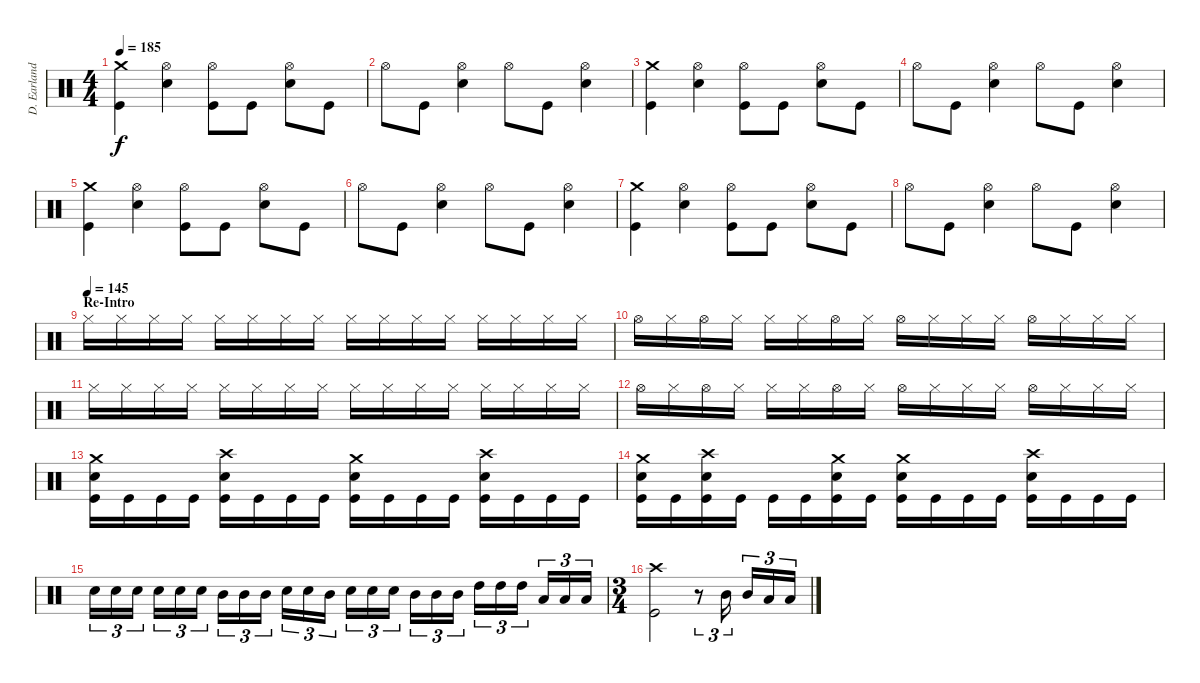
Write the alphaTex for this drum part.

\track ("D. Earlanddson" "D. Earland") {instrument percussion}
\staff {score}
\articulation defaults
\ts (4 4)
\tempo 185
\clef neutral
\ks c
("Crash medium (hit)" "Kick (hit)").4{dy f} ("Hi-Hat (open)" "Electric Snare (hit)").4 ("Hi-Hat (open)" "Kick (hit)").8 "Kick (hit)".8 ("Hi-Hat (open)" "Electric Snare (hit)").8 "Kick (hit)".8 |
"Hi-Hat (open)".8 "Kick (hit)".8 ("Hi-Hat (open)" "Electric Snare (hit)").4 "Hi-Hat (open)".8 "Kick (hit)".8 ("Hi-Hat (open)" "Electric Snare (hit)").4 |
("Crash medium (hit)" "Kick (hit)").4 ("Hi-Hat (open)" "Electric Snare (hit)").4 ("Hi-Hat (open)" "Kick (hit)").8 "Kick (hit)".8 ("Hi-Hat (open)" "Electric Snare (hit)").8 "Kick (hit)".8 |
"Hi-Hat (open)".8 "Kick (hit)".8 ("Hi-Hat (open)" "Electric Snare (hit)").4 "Hi-Hat (open)".8 "Kick (hit)".8 ("Hi-Hat (open)" "Electric Snare (hit)").4 |
("Crash medium (hit)" "Kick (hit)").4 ("Hi-Hat (open)" "Electric Snare (hit)").4 ("Hi-Hat (open)" "Kick (hit)").8 "Kick (hit)".8 ("Hi-Hat (open)" "Electric Snare (hit)").8 "Kick (hit)".8 |
"Hi-Hat (open)".8 "Kick (hit)".8 ("Hi-Hat (open)" "Electric Snare (hit)").4 "Hi-Hat (open)".8 "Kick (hit)".8 ("Hi-Hat (open)" "Electric Snare (hit)").4 |
("Crash medium (hit)" "Kick (hit)").4 ("Hi-Hat (open)" "Electric Snare (hit)").4 ("Hi-Hat (open)" "Kick (hit)").8 "Kick (hit)".8 ("Hi-Hat (open)" "Electric Snare (hit)").8 "Kick (hit)".8 |
"Hi-Hat (open)".8 "Kick (hit)".8 ("Hi-Hat (open)" "Electric Snare (hit)").4 "Hi-Hat (open)".8 "Kick (hit)".8 ("Hi-Hat (open)" "Electric Snare (hit)").4 |
\section ("" "Re-Intro")
\tempo (145)
"Hi-Hat (closed)".16 "Hi-Hat (closed)".16 "Hi-Hat (closed)".16 "Hi-Hat (closed)".16 "Hi-Hat (closed)".16 "Hi-Hat (closed)".16 "Hi-Hat (closed)".16 "Hi-Hat (closed)".16 "Hi-Hat (closed)".16 "Hi-Hat (closed)".16 "Hi-Hat (closed)".16 "Hi-Hat (closed)".16 "Hi-Hat (closed)".16 "Hi-Hat (closed)".16 "Hi-Hat (closed)".16 "Hi-Hat (closed)".16 |
"Hi-Hat (open)".16 "Hi-Hat (closed)".16 "Hi-Hat (open)".16 "Hi-Hat (closed)".16 "Hi-Hat (closed)".16 "Hi-Hat (closed)".16 "Hi-Hat (open)".16 "Hi-Hat (closed)".16 "Hi-Hat (open)".16 "Hi-Hat (closed)".16 "Hi-Hat (closed)".16 "Hi-Hat (closed)".16 "Hi-Hat (open)".16 "Hi-Hat (closed)".16 "Hi-Hat (closed)".16 "Hi-Hat (closed)".16 |
"Hi-Hat (closed)".16 "Hi-Hat (closed)".16 "Hi-Hat (closed)".16 "Hi-Hat (closed)".16 "Hi-Hat (closed)".16 "Hi-Hat (closed)".16 "Hi-Hat (closed)".16 "Hi-Hat (closed)".16 "Hi-Hat (closed)".16 "Hi-Hat (closed)".16 "Hi-Hat (closed)".16 "Hi-Hat (closed)".16 "Hi-Hat (closed)".16 "Hi-Hat (closed)".16 "Hi-Hat (closed)".16 "Hi-Hat (closed)".16 |
"Hi-Hat (open)".16 "Hi-Hat (closed)".16 "Hi-Hat (open)".16 "Hi-Hat (closed)".16 "Hi-Hat (closed)".16 "Hi-Hat (closed)".16 "Hi-Hat (open)".16 "Hi-Hat (closed)".16 "Hi-Hat (open)".16 "Hi-Hat (closed)".16 "Hi-Hat (closed)".16 "Hi-Hat (closed)".16 "Hi-Hat (open)".16 "Hi-Hat (closed)".16 "Hi-Hat (closed)".16 "Hi-Hat (closed)".16 |
("Crash medium (hit)" "Electric Snare (hit)" "Kick (hit)").16 "Kick (hit)".16 "Kick (hit)".16 "Kick (hit)".16 ("Crash high (hit)" "Electric Snare (hit)" "Kick (hit)").16 "Kick (hit)".16 "Kick (hit)".16 "Kick (hit)".16 ("Crash medium (hit)" "Electric Snare (hit)" "Kick (hit)").16 "Kick (hit)".16 "Kick (hit)".16 "Kick (hit)".16 ("Crash high (hit)" "Electric Snare (hit)" "Kick (hit)").16 "Kick (hit)".16 "Kick (hit)".16 "Kick (hit)".16 |
("Crash medium (hit)" "Electric Snare (hit)" "Kick (hit)").16 "Kick (hit)".16 ("Crash high (hit)" "Electric Snare (hit)" "Kick (hit)").16 "Kick (hit)".16 "Kick (hit)".16 "Kick (hit)".16 ("Crash medium (hit)" "Electric Snare (hit)" "Kick (hit)").16 "Kick (hit)".16 ("Crash medium (hit)" "Electric Snare (hit)" "Kick (hit)").16 "Kick (hit)".16 "Kick (hit)".16 "Kick (hit)".16 ("Crash high (hit)" "Electric Snare (hit)" "Kick (hit)").16 "Kick (hit)".16 "Kick (hit)".16 "Kick (hit)".16 |
"Electric Snare (hit)".16{tu (3 2)} "Electric Snare (hit)".16{tu (3 2)} "Electric Snare (hit)".16{tu (3 2)} "Electric Snare (hit)".16{tu (3 2)} "Electric Snare (hit)".16{tu (3 2)} "Electric Snare (hit)".16{tu (3 2)} "Mid Tom (hit)".16{tu (3 2)} "Mid Tom (hit)".16{tu (3 2)} "Mid Tom (hit)".16{tu (3 2)} "Electric Snare (hit)".16{tu (3 2)} "Electric Snare (hit)".16{tu (3 2)} "Mid Tom (hit)".16{tu (3 2)} "Electric Snare (hit)".16{tu (3 2)} "Electric Snare (hit)".16{tu (3 2)} "Electric Snare (hit)".16{tu (3 2)} "Mid Tom (hit)".16{tu (3 2)} "Mid Tom (hit)".16{tu (3 2)} "Mid Tom (hit)".16{tu (3 2)} "High Tom (hit)".16{tu (3 2)} "High Tom (hit)".16{tu (3 2)} "High Tom (hit)".16{tu (3 2)} "Low Tom (hit)".16{tu (3 2)} "Low Tom (hit)".16{tu (3 2)} "Low Tom (hit)".16{tu (3 2)} |
\ts (3 4)
("Crash high (hit)" "Kick (hit)").2 r.8{tu (3 2)} "Mid Tom (hit)".16{tu (3 2)} "Mid Tom (hit)".16{tu (3 2)} "Low Tom (hit)".16{tu (3 2)} "Low Tom (hit)".16{tu (3 2)}
